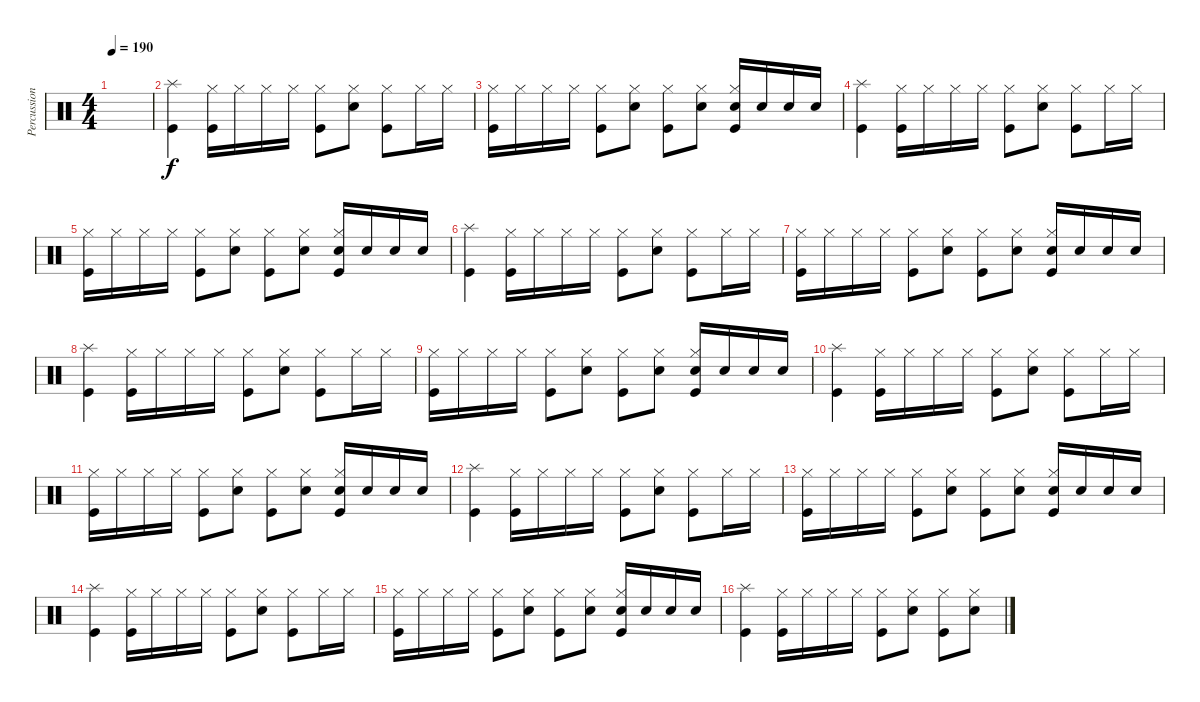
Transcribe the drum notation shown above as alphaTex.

\track ("Percussions" "Percussion") {instrument percussion}
\staff {score}
\articulation defaults
\ts (4 4)
\tempo 190
\clef neutral
\ks c
|
("Splash (hit)" "Kick (hit)").4 ("Hi-Hat (closed)" "Kick (hit)").16 "Hi-Hat (closed)".16 "Hi-Hat (closed)".16 "Hi-Hat (closed)".16 ("Hi-Hat (closed)" "Kick (hit)").8 ("Hi-Hat (closed)" "Snare (hit) 2").8 ("Hi-Hat (closed)" "Kick (hit)").8 "Hi-Hat (closed)".16 "Hi-Hat (closed)".16 |
("Hi-Hat (closed)" "Kick (hit)").16 "Hi-Hat (closed)".16 "Hi-Hat (closed)".16 "Hi-Hat (closed)".16 ("Hi-Hat (closed)" "Kick (hit)").8 ("Hi-Hat (closed)" "Snare (hit) 2").8 ("Hi-Hat (closed)" "Kick (hit)").8 ("Hi-Hat (closed)" "Snare (hit) 2").8 ("Hi-Hat (closed)" "Snare (hit) 2" "Kick (hit)").16 "Snare (hit) 2".16 "Snare (hit) 2".16 "Snare (hit) 2".16 |
("Splash (hit)" "Kick (hit)").4 ("Hi-Hat (closed)" "Kick (hit)").16 "Hi-Hat (closed)".16 "Hi-Hat (closed)".16 "Hi-Hat (closed)".16 ("Hi-Hat (closed)" "Kick (hit)").8 ("Hi-Hat (closed)" "Snare (hit) 2").8 ("Hi-Hat (closed)" "Kick (hit)").8 "Hi-Hat (closed)".16 "Hi-Hat (closed)".16 |
("Hi-Hat (closed)" "Kick (hit)").16 "Hi-Hat (closed)".16 "Hi-Hat (closed)".16 "Hi-Hat (closed)".16 ("Hi-Hat (closed)" "Kick (hit)").8 ("Hi-Hat (closed)" "Snare (hit) 2").8 ("Hi-Hat (closed)" "Kick (hit)").8 ("Hi-Hat (closed)" "Snare (hit) 2").8 ("Hi-Hat (closed)" "Snare (hit) 2" "Kick (hit)").16 "Snare (hit) 2".16 "Snare (hit) 2".16 "Snare (hit) 2".16 |
("Splash (hit)" "Kick (hit)").4 ("Hi-Hat (closed)" "Kick (hit)").16 "Hi-Hat (closed)".16 "Hi-Hat (closed)".16 "Hi-Hat (closed)".16 ("Hi-Hat (closed)" "Kick (hit)").8 ("Hi-Hat (closed)" "Snare (hit) 2").8 ("Hi-Hat (closed)" "Kick (hit)").8 "Hi-Hat (closed)".16 "Hi-Hat (closed)".16 |
("Hi-Hat (closed)" "Kick (hit)").16 "Hi-Hat (closed)".16 "Hi-Hat (closed)".16 "Hi-Hat (closed)".16 ("Hi-Hat (closed)" "Kick (hit)").8 ("Hi-Hat (closed)" "Snare (hit) 2").8 ("Hi-Hat (closed)" "Kick (hit)").8 ("Hi-Hat (closed)" "Snare (hit) 2").8 ("Hi-Hat (closed)" "Snare (hit) 2" "Kick (hit)").16 "Snare (hit) 2".16 "Snare (hit) 2".16 "Snare (hit) 2".16 |
("Splash (hit)" "Kick (hit)").4 ("Hi-Hat (closed)" "Kick (hit)").16 "Hi-Hat (closed)".16 "Hi-Hat (closed)".16 "Hi-Hat (closed)".16 ("Hi-Hat (closed)" "Kick (hit)").8 ("Hi-Hat (closed)" "Snare (hit) 2").8 ("Hi-Hat (closed)" "Kick (hit)").8 "Hi-Hat (closed)".16 "Hi-Hat (closed)".16 |
("Hi-Hat (closed)" "Kick (hit)").16 "Hi-Hat (closed)".16 "Hi-Hat (closed)".16 "Hi-Hat (closed)".16 ("Hi-Hat (closed)" "Kick (hit)").8 ("Hi-Hat (closed)" "Snare (hit) 2").8 ("Hi-Hat (closed)" "Kick (hit)").8 ("Hi-Hat (closed)" "Snare (hit) 2").8 ("Hi-Hat (closed)" "Snare (hit) 2" "Kick (hit)").16 "Snare (hit) 2".16 "Snare (hit) 2".16 "Snare (hit) 2".16 |
("Splash (hit)" "Kick (hit)").4 ("Hi-Hat (closed)" "Kick (hit)").16 "Hi-Hat (closed)".16 "Hi-Hat (closed)".16 "Hi-Hat (closed)".16 ("Hi-Hat (closed)" "Kick (hit)").8 ("Hi-Hat (closed)" "Snare (hit) 2").8 ("Hi-Hat (closed)" "Kick (hit)").8 "Hi-Hat (closed)".16 "Hi-Hat (closed)".16 |
("Hi-Hat (closed)" "Kick (hit)").16 "Hi-Hat (closed)".16 "Hi-Hat (closed)".16 "Hi-Hat (closed)".16 ("Hi-Hat (closed)" "Kick (hit)").8 ("Hi-Hat (closed)" "Snare (hit) 2").8 ("Hi-Hat (closed)" "Kick (hit)").8 ("Hi-Hat (closed)" "Snare (hit) 2").8 ("Hi-Hat (closed)" "Snare (hit) 2" "Kick (hit)").16 "Snare (hit) 2".16 "Snare (hit) 2".16 "Snare (hit) 2".16 |
("Splash (hit)" "Kick (hit)").4 ("Hi-Hat (closed)" "Kick (hit)").16 "Hi-Hat (closed)".16 "Hi-Hat (closed)".16 "Hi-Hat (closed)".16 ("Hi-Hat (closed)" "Kick (hit)").8 ("Hi-Hat (closed)" "Snare (hit) 2").8 ("Hi-Hat (closed)" "Kick (hit)").8 "Hi-Hat (closed)".16 "Hi-Hat (closed)".16 |
("Hi-Hat (closed)" "Kick (hit)").16 "Hi-Hat (closed)".16 "Hi-Hat (closed)".16 "Hi-Hat (closed)".16 ("Hi-Hat (closed)" "Kick (hit)").8 ("Hi-Hat (closed)" "Snare (hit) 2").8 ("Hi-Hat (closed)" "Kick (hit)").8 ("Hi-Hat (closed)" "Snare (hit) 2").8 ("Hi-Hat (closed)" "Snare (hit) 2" "Kick (hit)").16 "Snare (hit) 2".16 "Snare (hit) 2".16 "Snare (hit) 2".16 |
("Splash (hit)" "Kick (hit)").4 ("Hi-Hat (closed)" "Kick (hit)").16 "Hi-Hat (closed)".16 "Hi-Hat (closed)".16 "Hi-Hat (closed)".16 ("Hi-Hat (closed)" "Kick (hit)").8 ("Hi-Hat (closed)" "Snare (hit) 2").8 ("Hi-Hat (closed)" "Kick (hit)").8 "Hi-Hat (closed)".16 "Hi-Hat (closed)".16 |
("Hi-Hat (closed)" "Kick (hit)").16 "Hi-Hat (closed)".16 "Hi-Hat (closed)".16 "Hi-Hat (closed)".16 ("Hi-Hat (closed)" "Kick (hit)").8 ("Hi-Hat (closed)" "Snare (hit) 2").8 ("Hi-Hat (closed)" "Kick (hit)").8 ("Hi-Hat (closed)" "Snare (hit) 2").8 ("Hi-Hat (closed)" "Snare (hit) 2" "Kick (hit)").16 "Snare (hit) 2".16 "Snare (hit) 2".16 "Snare (hit) 2".16 |
("Splash (hit)" "Kick (hit)").4 ("Hi-Hat (closed)" "Kick (hit)").16 "Hi-Hat (closed)".16 "Hi-Hat (closed)".16 "Hi-Hat (closed)".16 ("Hi-Hat (closed)" "Kick (hit)").8 ("Hi-Hat (closed)" "Snare (hit) 2").8 ("Hi-Hat (closed)" "Kick (hit)").8 ("Hi-Hat (closed)" "Snare (hit) 2").8
